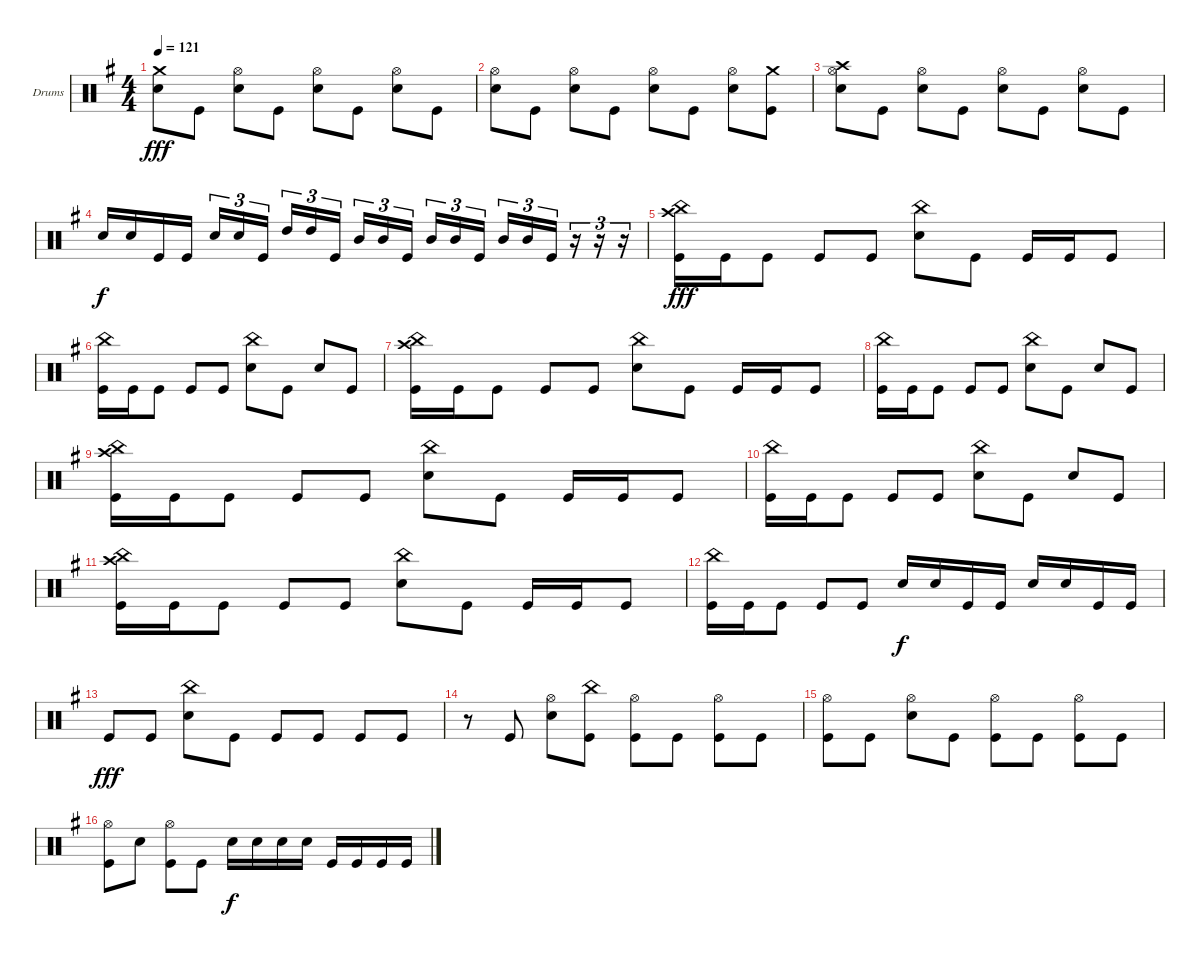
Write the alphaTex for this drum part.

\bracketExtendMode groupsimilarinstruments
\firstSystemTrackNameOrientation horizontal
\otherSystemsTrackNameOrientation horizontal
\track ("Drumkit" "Drums") {instrument percussion}
\staff {score}
\articulation defaults
\ts (4 4)
\tempo 121
\clef neutral
\scale
0.333333
\ks g
("Snare (hit) 2" "Crash medium (hit)").8{dy fff} "Kick (hit)".8 ("Snare (hit) 2" "Hi-Hat (open)").8 "Kick (hit)".8 ("Snare (hit) 2" "Hi-Hat (open)").8 "Kick (hit)".8 ("Snare (hit) 2" "Hi-Hat (open)").8 "Kick (hit)".8 |
\scale
0.333333 ("Snare (hit) 2" "Hi-Hat (open)").8 "Kick (hit)".8 ("Snare (hit) 2" "Hi-Hat (open)").8 "Kick (hit)".8 ("Snare (hit) 2" "Hi-Hat (open)").8 "Kick (hit)".8 ("Snare (hit) 2" "Hi-Hat (open)").8 ("Kick (hit)" "Crash medium (hit)").8 |
\scale
0.333333 ("Snare (hit) 2" "Hi-Hat (open)" "Crash high (hit)").8 "Kick (hit)".8 ("Snare (hit) 2" "Hi-Hat (open)").8 "Kick (hit)".8 ("Snare (hit) 2" "Hi-Hat (open)").8 "Kick (hit)".8 ("Snare (hit) 2" "Hi-Hat (open)").8 "Kick (hit)".8 |
\scale
0.333333 "Snare (hit) 2".16{dy f} "Snare (hit) 2".16 "Kick (hit)".16 "Kick (hit)".16 "Snare (hit) 2".16{tu (3 2)} "Snare (hit) 2".16{tu (3 2)} "Kick (hit)".16{tu (3 2)} "High Tom (hit)".16{tu (3 2)} "High Tom (hit)".16{tu (3 2)} "Kick (hit)".16{tu (3 2)} "Mid Tom (hit)".16{tu (3 2)} "Mid Tom (hit)".16{tu (3 2)} "Kick (hit)".16{tu (3 2)} "Mid Tom (hit)".16{tu (3 2)} "Mid Tom (hit)".16{tu (3 2)} "Kick (hit)".16{tu (3 2)} "Mid Tom (hit)".16{tu (3 2)} "Mid Tom (hit)".16{tu (3 2)} "Kick (hit)".16{tu (3 2)} r.16{tu (3 2)} r.16{tu (3 2)} r.16{tu (3 2)} |
\scale
0.333333 ("China (hit)" "Kick (hit)" "Crash high (hit)").16{dy fff} "Kick (hit)".16 "Kick (hit)".8 "Kick (hit)".8 "Kick (hit)".8 ("China (hit)" "Snare (hit) 2").8 "Kick (hit)".8 "Kick (hit)".16 "Kick (hit)".16 "Kick (hit)".8 |
\scale
0.333333 ("China (hit)" "Kick (hit)").16 "Kick (hit)".16 "Kick (hit)".8 "Kick (hit)".8 "Kick (hit)".8 ("China (hit)" "Snare (hit) 2").8 "Kick (hit)".8 "Snare (hit) 2".8 "Kick (hit)".8 |
\scale
0.333333 ("China (hit)" "Kick (hit)" "Crash high (hit)").16 "Kick (hit)".16 "Kick (hit)".8 "Kick (hit)".8 "Kick (hit)".8 ("China (hit)" "Snare (hit) 2").8 "Kick (hit)".8 "Kick (hit)".16 "Kick (hit)".16 "Kick (hit)".8 |
\scale
0.333333 ("China (hit)" "Kick (hit)").16 "Kick (hit)".16 "Kick (hit)".8 "Kick (hit)".8 "Kick (hit)".8 ("China (hit)" "Snare (hit) 2").8 "Kick (hit)".8 "Snare (hit) 2".8 "Kick (hit)".8 |
\scale
0.333333 ("China (hit)" "Kick (hit)" "Crash high (hit)").16 "Kick (hit)".16 "Kick (hit)".8 "Kick (hit)".8 "Kick (hit)".8 ("China (hit)" "Snare (hit) 2").8 "Kick (hit)".8 "Kick (hit)".16 "Kick (hit)".16 "Kick (hit)".8 |
\scale
0.333333 ("China (hit)" "Kick (hit)").16 "Kick (hit)".16 "Kick (hit)".8 "Kick (hit)".8 "Kick (hit)".8 ("China (hit)" "Snare (hit) 2").8 "Kick (hit)".8 "Snare (hit) 2".8 "Kick (hit)".8 |
\scale
0.333333 ("China (hit)" "Kick (hit)" "Crash high (hit)").16 "Kick (hit)".16 "Kick (hit)".8 "Kick (hit)".8 "Kick (hit)".8 ("China (hit)" "Snare (hit) 2").8 "Kick (hit)".8 "Kick (hit)".16 "Kick (hit)".16 "Kick (hit)".8 |
\scale
0.333333 ("China (hit)" "Kick (hit)").16 "Kick (hit)".16 "Kick (hit)".8 "Kick (hit)".8 "Kick (hit)".8 "Snare (hit) 2".16{dy f} "Snare (hit) 2".16 "Kick (hit)".16 "Kick (hit)".16 "Snare (hit) 2".16 "Snare (hit) 2".16 "Kick (hit)".16 "Kick (hit)".16 |
\scale
0.333333 "Kick (hit)".8{dy fff} "Kick (hit)".8 ("China (hit)" "Snare (hit) 2").8 "Kick (hit)".8 "Kick (hit)".8 "Kick (hit)".8 "Kick (hit)".8 "Kick (hit)".8 |
\scale
0.333333 r.8 "Kick (hit)".8 ("Snare (hit) 2" "Hi-Hat (open)").8 ("Kick (hit)" "China (hit)").8 ("Kick (hit)" "Hi-Hat (open)").8 "Kick (hit)".8 ("Kick (hit)" "Hi-Hat (open)").8 "Kick (hit)".8 |
\scale
0.333333 ("Kick (hit)" "Hi-Hat (open)").8 "Kick (hit)".8 ("Snare (hit) 2" "Hi-Hat (open)").8 "Kick (hit)".8 ("Kick (hit)" "Hi-Hat (open)").8 "Kick (hit)".8 ("Kick (hit)" "Hi-Hat (open)").8 "Kick (hit)".8 |
\scale
0.333333 ("Kick (hit)" "Hi-Hat (open)").8 "Snare (hit) 2".8 ("Kick (hit)" "Hi-Hat (open)").8 "Kick (hit)".8 "Snare (hit) 2".16{dy f} "Snare (hit) 2".16 "Snare (hit) 2".16 "Snare (hit) 2".16 "Kick (hit)".16 "Kick (hit)".16 "Kick (hit)".16 "Kick (hit)".16
